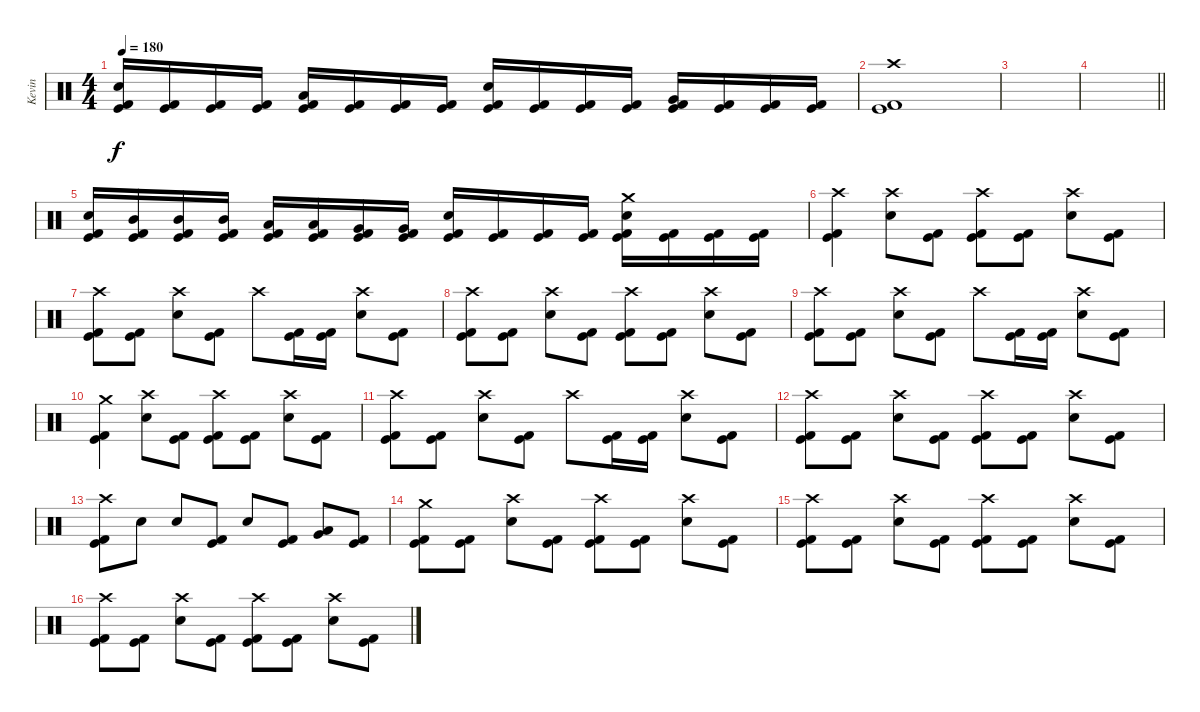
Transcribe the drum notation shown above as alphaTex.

\track ("Kevin" "Kevin") {instrument percussion}
\staff {score}
\articulation defaults
\ts (4 4)
\tempo 180
\clef neutral
\ks c
("Electric Snare (hit)" "Kick (hit)" "Kick (hit) 2").16{dy f} ("Kick (hit)" "Kick (hit) 2").16 ("Kick (hit)" "Kick (hit) 2").16 ("Kick (hit)" "Kick (hit) 2").16 ("Low Tom (hit)" "Kick (hit)" "Kick (hit) 2").16 ("Kick (hit)" "Kick (hit) 2").16 ("Kick (hit)" "Kick (hit) 2").16 ("Kick (hit)" "Kick (hit) 2").16 ("Electric Snare (hit)" "Kick (hit)" "Kick (hit) 2").16 ("Kick (hit)" "Kick (hit) 2").16 ("Kick (hit)" "Kick (hit) 2").16 ("Kick (hit)" "Kick (hit) 2").16 ("Very Low Tom (hit)" "Kick (hit)" "Kick (hit) 2").16 ("Kick (hit)" "Kick (hit) 2").16 ("Kick (hit)" "Kick (hit) 2").16 ("Kick (hit)" "Kick (hit) 2").16 |
("Crash high (hit)" "Kick (hit)" "Kick (hit) 2").1{volume 0} |
|
\barLineRight lightlight
|
\section ("" "")
("Electric Snare (hit)" "Kick (hit)" "Kick (hit) 2").16{volume 13} ("Mid Tom (hit)" "Kick (hit)" "Kick (hit) 2").16 ("Mid Tom (hit)" "Kick (hit)" "Kick (hit) 2").16 ("Mid Tom (hit)" "Kick (hit)" "Kick (hit) 2").16 ("Low Tom (hit)" "Kick (hit)" "Kick (hit) 2").16 ("Low Tom (hit)" "Kick (hit)" "Kick (hit) 2").16 ("Very Low Tom (hit)" "Kick (hit)" "Kick (hit) 2").16 ("Very Low Tom (hit)" "Kick (hit)" "Kick (hit) 2").16 ("Electric Snare (hit)" "Kick (hit)" "Kick (hit) 2").16 ("Kick (hit)" "Kick (hit) 2").16 ("Kick (hit)" "Kick (hit) 2").16 ("Kick (hit)" "Kick (hit) 2").16 ("Crash medium (hit)" "Electric Snare (hit)" "Kick (hit)" "Kick (hit) 2").16 ("Kick (hit)" "Kick (hit) 2").16 ("Kick (hit)" "Kick (hit) 2").16 ("Kick (hit)" "Kick (hit) 2").16 |
("Crash high (hit)" "Kick (hit)" "Kick (hit) 2").4 ("Crash high (hit)" "Electric Snare (hit)").8 ("Kick (hit)" "Kick (hit) 2").8 ("Crash high (hit)" "Kick (hit)" "Kick (hit) 2").8 ("Kick (hit) 2" "Kick (hit)").8 ("Crash high (hit)" "Electric Snare (hit)").8 ("Kick (hit)" "Kick (hit) 2").8 |
("Crash high (hit)" "Kick (hit)" "Kick (hit) 2").8 ("Kick (hit)" "Kick (hit) 2").8 ("Crash high (hit)" "Electric Snare (hit)").8 ("Kick (hit)" "Kick (hit) 2").8 "Crash high (hit)".8 ("Kick (hit)" "Kick (hit) 2").16 ("Kick (hit)" "Kick (hit) 2").16 ("Crash high (hit)" "Electric Snare (hit)").8 ("Kick (hit)" "Kick (hit) 2").8 |
("Crash high (hit)" "Kick (hit)" "Kick (hit) 2").8 ("Kick (hit)" "Kick (hit) 2").8 ("Crash high (hit)" "Electric Snare (hit)").8 ("Kick (hit)" "Kick (hit) 2").8 ("Crash high (hit)" "Kick (hit)" "Kick (hit) 2").8 ("Kick (hit) 2" "Kick (hit)").8 ("Crash high (hit)" "Electric Snare (hit)").8 ("Kick (hit)" "Kick (hit) 2").8 |
("Crash high (hit)" "Kick (hit)" "Kick (hit) 2").8 ("Kick (hit)" "Kick (hit) 2").8 ("Crash high (hit)" "Electric Snare (hit)").8 ("Kick (hit)" "Kick (hit) 2").8 "Crash high (hit)".8 ("Kick (hit)" "Kick (hit) 2").16 ("Kick (hit)" "Kick (hit) 2").16 ("Crash high (hit)" "Electric Snare (hit)").8 ("Kick (hit)" "Kick (hit) 2").8 |
("Crash medium (hit)" "Kick (hit)" "Kick (hit) 2").4 ("Crash high (hit)" "Electric Snare (hit)").8 ("Kick (hit)" "Kick (hit) 2").8 ("Crash high (hit)" "Kick (hit)" "Kick (hit) 2").8 ("Kick (hit) 2" "Kick (hit)").8 ("Crash high (hit)" "Electric Snare (hit)").8 ("Kick (hit)" "Kick (hit) 2").8 |
("Crash high (hit)" "Kick (hit)" "Kick (hit) 2").8 ("Kick (hit)" "Kick (hit) 2").8 ("Crash high (hit)" "Electric Snare (hit)").8 ("Kick (hit)" "Kick (hit) 2").8 "Crash high (hit)".8 ("Kick (hit)" "Kick (hit) 2").16 ("Kick (hit)" "Kick (hit) 2").16 ("Crash high (hit)" "Electric Snare (hit)").8 ("Kick (hit)" "Kick (hit) 2").8 |
("Crash high (hit)" "Kick (hit)" "Kick (hit) 2").8 ("Kick (hit)" "Kick (hit) 2").8 ("Crash high (hit)" "Electric Snare (hit)").8 ("Kick (hit)" "Kick (hit) 2").8 ("Crash high (hit)" "Kick (hit)" "Kick (hit) 2").8 ("Kick (hit) 2" "Kick (hit)").8 ("Crash high (hit)" "Electric Snare (hit)").8 ("Kick (hit)" "Kick (hit) 2").8 |
("Crash high (hit)" "Kick (hit)" "Kick (hit) 2").8 "Electric Snare (hit)".8 "Electric Snare (hit)".8 ("Kick (hit)" "Kick (hit) 2").8 "Electric Snare (hit)".8 ("Kick (hit)" "Kick (hit) 2").8 ("Low Tom (hit)" "Very Low Tom (hit)").8 ("Kick (hit)" "Kick (hit) 2").8 |
("Crash medium (hit)" "Kick (hit)" "Kick (hit) 2").8 ("Kick (hit)" "Kick (hit) 2").8 ("Crash high (hit)" "Electric Snare (hit)").8 ("Kick (hit)" "Kick (hit) 2").8 ("Crash high (hit)" "Kick (hit)" "Kick (hit) 2").8 ("Kick (hit) 2" "Kick (hit)").8 ("Crash high (hit)" "Electric Snare (hit)").8 ("Kick (hit)" "Kick (hit) 2").8 |
("Crash high (hit)" "Kick (hit)" "Kick (hit) 2").8 ("Kick (hit)" "Kick (hit) 2").8 ("Crash high (hit)" "Electric Snare (hit)").8 ("Kick (hit)" "Kick (hit) 2").8 ("Crash high (hit)" "Kick (hit)" "Kick (hit) 2").8 ("Kick (hit)" "Kick (hit) 2").8 ("Crash high (hit)" "Electric Snare (hit)").8 ("Kick (hit)" "Kick (hit) 2").8 |
("Crash high (hit)" "Kick (hit)" "Kick (hit) 2").8 ("Kick (hit)" "Kick (hit) 2").8 ("Crash high (hit)" "Electric Snare (hit)").8 ("Kick (hit)" "Kick (hit) 2").8 ("Crash high (hit)" "Kick (hit)" "Kick (hit) 2").8 ("Kick (hit)" "Kick (hit) 2").8 ("Crash high (hit)" "Electric Snare (hit)").8 ("Kick (hit)" "Kick (hit) 2").8
